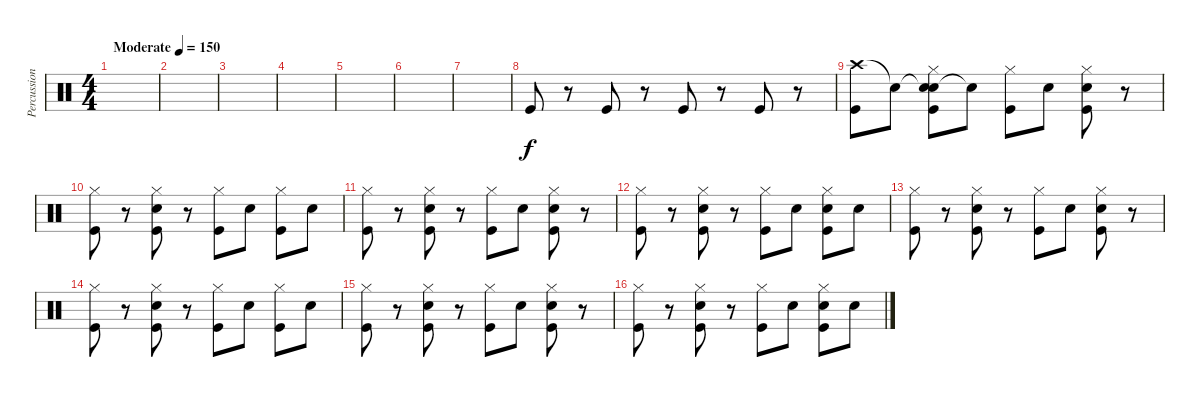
\track ("Percussion" "Percussion") {instrument percussion}
\staff {score}
\articulation defaults
\ts (4 4)
\tempo (150 "Moderate")
\clef neutral
\ks c
|
|
|
|
|
|
|
"Kick (hit)".8 r.8 "Kick (hit)".8 r.8 "Kick (hit)".8 r.8 "Kick (hit)".8 r.8 |
("Crash high (hit)" "Kick (hit)").8 "Snare (hit)"{t}.8 ("Snare (hit)"{t} "Hi-Hat (closed)" "Snare (hit) 2" "Kick (hit)").8 "Snare (hit)"{t}.8 ("Hi-Hat (closed)" "Kick (hit)").8 "Snare (hit) 2".8 ("Hi-Hat (closed)" "Snare (hit) 2" "Kick (hit)").8 r.8 |
("Hi-Hat (closed)" "Kick (hit)").8 r.8 ("Hi-Hat (closed)" "Snare (hit) 2" "Kick (hit)").8 r.8 ("Hi-Hat (closed)" "Kick (hit)").8 "Snare (hit) 2".8 ("Hi-Hat (closed)" "Kick (hit)").8 "Snare (hit) 2".8 |
("Hi-Hat (closed)" "Kick (hit)").8 r.8 ("Hi-Hat (closed)" "Snare (hit) 2" "Kick (hit)").8 r.8 ("Hi-Hat (closed)" "Kick (hit)").8 "Snare (hit) 2".8 ("Hi-Hat (closed)" "Snare (hit) 2" "Kick (hit)").8 r.8 |
("Hi-Hat (closed)" "Kick (hit)").8 r.8 ("Hi-Hat (closed)" "Snare (hit) 2" "Kick (hit)").8 r.8 ("Hi-Hat (closed)" "Kick (hit)").8 "Snare (hit) 2".8 ("Hi-Hat (closed)" "Snare (hit) 2" "Kick (hit)").8 "Snare (hit) 2".8 |
("Hi-Hat (closed)" "Kick (hit)").8 r.8 ("Hi-Hat (closed)" "Snare (hit) 2" "Kick (hit)").8 r.8 ("Hi-Hat (closed)" "Kick (hit)").8 "Snare (hit) 2".8 ("Hi-Hat (closed)" "Snare (hit) 2" "Kick (hit)").8 r.8 |
("Hi-Hat (closed)" "Kick (hit)").8 r.8 ("Hi-Hat (closed)" "Snare (hit) 2" "Kick (hit)").8 r.8 ("Hi-Hat (closed)" "Kick (hit)").8 "Snare (hit) 2".8 ("Hi-Hat (closed)" "Kick (hit)").8 "Snare (hit) 2".8 |
("Hi-Hat (closed)" "Kick (hit)").8 r.8 ("Hi-Hat (closed)" "Snare (hit) 2" "Kick (hit)").8 r.8 ("Hi-Hat (closed)" "Kick (hit)").8 "Snare (hit) 2".8 ("Hi-Hat (closed)" "Snare (hit) 2" "Kick (hit)").8 r.8 |
("Hi-Hat (closed)" "Kick (hit)").8 r.8 ("Hi-Hat (closed)" "Snare (hit) 2" "Kick (hit)").8 r.8 ("Hi-Hat (closed)" "Kick (hit)").8 "Snare (hit) 2".8 ("Hi-Hat (closed)" "Snare (hit) 2" "Kick (hit)").8 "Snare (hit) 2".8
